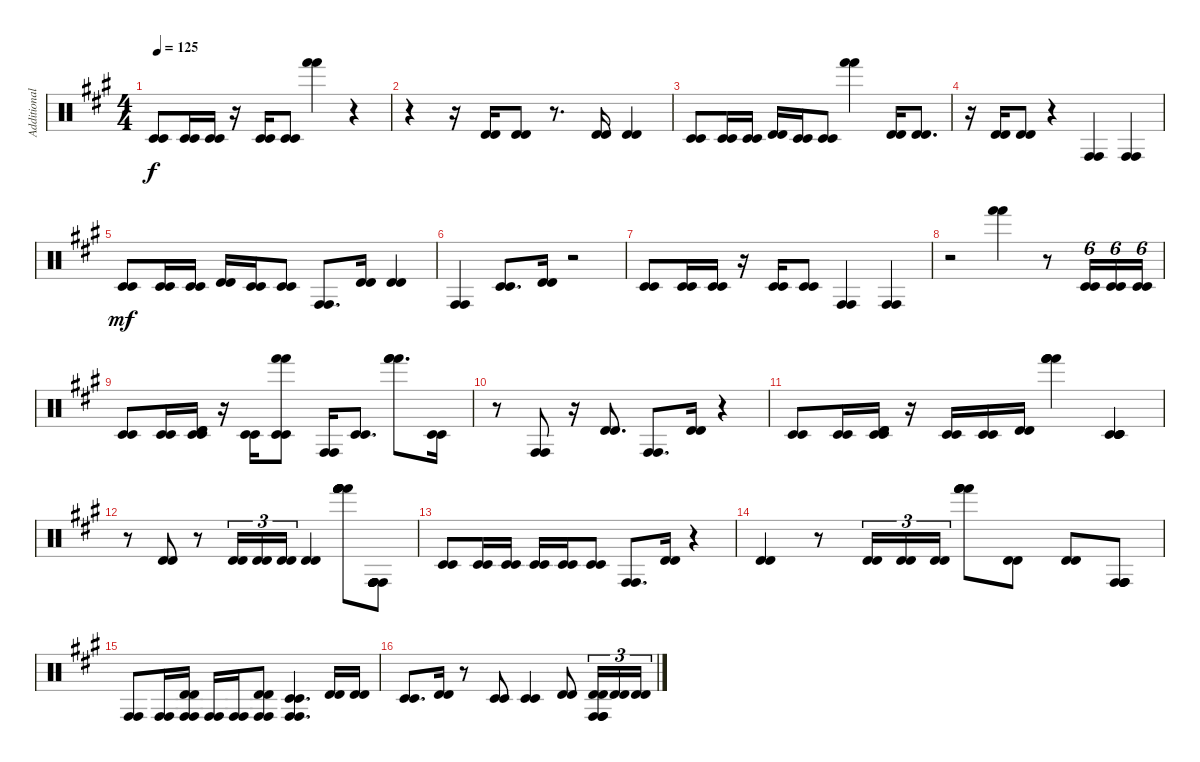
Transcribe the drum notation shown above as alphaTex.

\track ("Additional Percussion I" "Additional") {instrument percussion}
\staff {score}
\articulation defaults
\ts (4 4)
\tempo 125
\clef neutral
\ks a
("Timbale low (hit)" "Timbale low (hit)").8{dy f} ("Timbale low (hit)" "Timbale low (hit)").16 ("Timbale low (hit)" "Timbale low (hit)").16 r.16 ("Timbale low (hit)" "Timbale low (hit)").16 ("Timbale low (hit)" "Timbale low (hit)").8 ("Hand (hit)" "Hand (hit)").4 r.4 |
r.4 r.16 ("Timbale high (hit)" "Timbale high (hit)").16 ("Timbale high (hit)" "Timbale high (hit)").8 r.8{d} ("Timbale high (hit)" "Timbale high (hit)").16 ("Timbale high (hit)" "Timbale high (hit)").4 |
("Timbale low (hit)" "Timbale low (hit)").8 ("Timbale low (hit)" "Timbale low (hit)").16 ("Timbale low (hit)" "Timbale low (hit)").16 ("Timbale high (hit)" "Timbale high (hit)").16 ("Timbale low (hit)" "Timbale low (hit)").16 ("Timbale low (hit)" "Timbale low (hit)").8 ("Hand (hit)" "Hand (hit)").4 ("Timbale high (hit)" "Timbale high (hit)").16 ("Timbale high (hit)" "Timbale high (hit)").8{d} |
r.16 ("Timbale high (hit)" "Timbale high (hit)").16 ("Timbale high (hit)" "Timbale high (hit)").8 r.4 ("Conga high (hit)" "Conga high (hit)").4 ("Conga high (hit)" "Conga high (hit)").4 |
("Timbale low (hit)" "Timbale low (hit)").8{dy mf} ("Timbale low (hit)" "Timbale low (hit)").16 ("Timbale low (hit)" "Timbale low (hit)").16 ("Timbale high (hit)" "Timbale high (hit)").16 ("Timbale low (hit)" "Timbale low (hit)").16 ("Timbale low (hit)" "Timbale low (hit)").8 ("Conga high (hit)" "Conga high (hit)").8{d} ("Timbale high (hit)" "Timbale high (hit)").16 ("Timbale high (hit)" "Timbale high (hit)").4 |
("Conga high (hit)" "Conga high (hit)").4 ("Timbale low (hit)" "Timbale low (hit)").8{d} ("Timbale high (hit)" "Timbale high (hit)").16 r.2 |
("Timbale low (hit)" "Timbale low (hit)").8 ("Timbale low (hit)" "Timbale low (hit)").16 ("Timbale low (hit)" "Timbale low (hit)").16 r.16 ("Timbale low (hit)" "Timbale low (hit)").16 ("Timbale low (hit)" "Timbale low (hit)").8 ("Conga high (hit)" "Conga high (hit)").4 ("Conga high (hit)" "Conga high (hit)").4 |
r.2 ("Hand (hit)" "Hand (hit)").4 r.8 ("Timbale low (hit)" "Timbale low (hit)").16{tu (6 4)} ("Timbale low (hit)" "Timbale low (hit)").16{tu (6 4)} ("Timbale low (hit)" "Timbale low (hit)").16{tu (6 4)} |
("Timbale low (hit)" "Timbale low (hit)").8 ("Timbale low (hit)" "Timbale low (hit)").16 ("Timbale low (hit)" "Timbale low (hit)" "Timbale high (hit)" "Timbale high (hit)").16 r.16 ("Timbale low (hit)" "Timbale low (hit)").16 ("Timbale low (hit)" "Timbale low (hit)" "Hand (hit)" "Hand (hit)").8 ("Conga high (hit)" "Conga high (hit)").16 ("Timbale low (hit)" "Timbale low (hit)").8{d} ("Hand (hit)" "Hand (hit)" "Hand (hit)").8{d} ("Timbale low (hit)" "Timbale low (hit)").16 |
r.8 ("Conga high (hit)" "Conga high (hit)").8 r.16 ("Timbale high (hit)" "Timbale high (hit)").8{d} ("Conga high (hit)" "Conga high (hit)").8{d} ("Timbale high (hit)" "Timbale high (hit)").16 r.4 |
("Timbale low (hit)" "Timbale low (hit)").8 ("Timbale low (hit)" "Timbale low (hit)").16 ("Timbale low (hit)" "Timbale low (hit)" "Timbale high (hit)" "Timbale high (hit)").16 r.16 ("Timbale low (hit)" "Timbale low (hit)").16 ("Timbale low (hit)" "Timbale low (hit)").16 ("Timbale high (hit)" "Timbale high (hit)").16 ("Hand (hit)" "Hand (hit)" "Hand (hit)" "Hand (hit)").4 ("Timbale low (hit)" "Timbale low (hit)" "Timbale low (hit)" "Timbale low (hit)").4 |
r.8 ("Timbale high (hit)" "Timbale high (hit)").8 r.8 ("Timbale high (hit)" "Timbale high (hit)").16{tu (3 2)} ("Timbale high (hit)" "Timbale high (hit)").16{tu (3 2)} ("Timbale high (hit)" "Timbale high (hit)").16{tu (3 2)} ("Timbale high (hit)" "Timbale high (hit)").4 ("Hand (hit)" "Hand (hit)" "Hand (hit)" "Hand (hit)" "Hand (hit)" "Hand (hit)").8 ("Conga high (hit)" "Conga high (hit)" "Conga high (hit)" "Conga high (hit)" "Conga high (hit)" "Conga high (hit)").8 |
("Timbale low (hit)" "Timbale low (hit)").8 ("Timbale low (hit)" "Timbale low (hit)").16 ("Timbale low (hit)" "Timbale low (hit)").16 ("Timbale low (hit)" "Timbale low (hit)").16 ("Timbale low (hit)" "Timbale low (hit)").16 ("Timbale low (hit)" "Timbale low (hit)").8 ("Conga high (hit)" "Conga high (hit)").8{d} ("Timbale high (hit)" "Timbale high (hit)").16 r.4 |
("Timbale high (hit)" "Timbale high (hit)").4 r.8 ("Timbale high (hit)" "Timbale high (hit)").16{tu (3 2)} ("Timbale high (hit)" "Timbale high (hit)").16{tu (3 2)} ("Timbale high (hit)" "Timbale high (hit)").16{tu (3 2)} ("Hand (hit)" "Hand (hit)" "Hand (hit)" "Hand (hit)").8 ("Timbale high (hit)" "Timbale high (hit)").8 ("Timbale high (hit)" "Timbale high (hit)").8 ("Conga high (hit)" "Conga high (hit)" "Conga high (hit)" "Conga high (hit)").8 |
("Conga high (hit)" "Conga high (hit)").8 ("Conga high (hit)" "Conga high (hit)").16 ("Timbale high (hit)" "Timbale high (hit)" "Conga high (hit)" "Conga high (hit)").16 ("Conga high (hit)" "Conga high (hit)").16 ("Conga high (hit)" "Conga high (hit)").16 ("Timbale high (hit)" "Timbale high (hit)" "Conga high (hit)" "Conga high (hit)").8 ("Timbale low (hit)" "Timbale low (hit)" "Conga high (hit)" "Conga high (hit)").4{d} ("Timbale high (hit)" "Timbale high (hit)").16 ("Timbale high (hit)" "Timbale high (hit)").16 |
("Timbale low (hit)" "Timbale low (hit)").8{d} ("Timbale high (hit)" "Timbale high (hit)").16 r.8 ("Timbale low (hit)" "Timbale low (hit)").8 ("Timbale low (hit)" "Timbale low (hit)").4 ("Timbale high (hit)" "Timbale high (hit)").8 ("Timbale high (hit)" "Timbale high (hit)" "Conga high (hit)" "Conga high (hit)" "Conga high (hit)").16{tu (3 2)} ("Timbale high (hit)" "Timbale high (hit)").16{tu (3 2)} ("Timbale high (hit)" "Timbale high (hit)").16{tu (3 2)}
